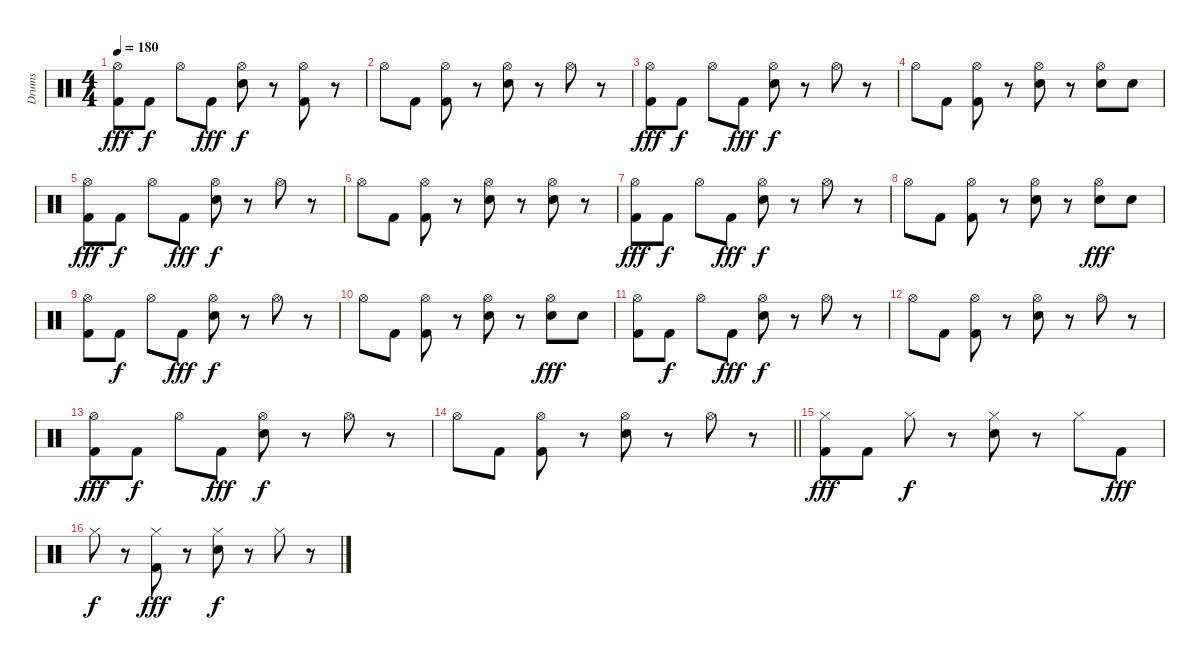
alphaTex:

\track ("Drums" "Drums") {instrument percussion}
\staff {score}
\articulation defaults
\ts (4 4)
\tempo 180
\clef neutral
\ks c
("Hi-Hat (open)" "Kick (hit) 2").8{dy fff} "Kick (hit) 2".8{dy f} "Hi-Hat (open)".8 "Kick (hit) 2".8{dy fff} ("Hi-Hat (open)" "Electric Snare (hit)").8{dy f} r.8 ("Hi-Hat (open)" "Kick (hit) 2").8 r.8 |
"Hi-Hat (open)".8 "Kick (hit) 2".8 ("Hi-Hat (open)" "Kick (hit) 2").8 r.8 ("Hi-Hat (open)" "Electric Snare (hit)").8 r.8 "Hi-Hat (open)".8 r.8 |
("Hi-Hat (open)" "Kick (hit) 2").8{dy fff} "Kick (hit) 2".8{dy f} "Hi-Hat (open)".8 "Kick (hit) 2".8{dy fff} ("Hi-Hat (open)" "Electric Snare (hit)").8{dy f} r.8 "Hi-Hat (open)".8 r.8 |
"Hi-Hat (open)".8 "Kick (hit) 2".8 ("Hi-Hat (open)" "Kick (hit) 2").8 r.8 ("Hi-Hat (open)" "Electric Snare (hit)").8 r.8 ("Hi-Hat (open)" "Electric Snare (hit)").8 "Electric Snare (hit)".8 |
("Hi-Hat (open)" "Kick (hit) 2").8{dy fff} "Kick (hit) 2".8{dy f} "Hi-Hat (open)".8 "Kick (hit) 2".8{dy fff} ("Hi-Hat (open)" "Electric Snare (hit)").8{dy f} r.8 "Hi-Hat (open)".8 r.8 |
"Hi-Hat (open)".8 "Kick (hit) 2".8 ("Hi-Hat (open)" "Kick (hit) 2").8 r.8 ("Hi-Hat (open)" "Electric Snare (hit)").8 r.8 ("Hi-Hat (open)" "Electric Snare (hit)").8 r.8 |
("Hi-Hat (open)" "Kick (hit) 2").8{dy fff} "Kick (hit) 2".8{dy f} "Hi-Hat (open)".8 "Kick (hit) 2".8{dy fff} ("Hi-Hat (open)" "Electric Snare (hit)").8{dy f} r.8 "Hi-Hat (open)".8 r.8 |
"Hi-Hat (open)".8 "Kick (hit) 2".8 ("Hi-Hat (open)" "Kick (hit) 2").8 r.8 ("Hi-Hat (open)" "Electric Snare (hit)").8 r.8 ("Hi-Hat (open)" "Electric Snare (hit)").8{dy fff} "Electric Snare (hit)".8 |
("Hi-Hat (open)" "Kick (hit) 2").8 "Kick (hit) 2".8{dy f} "Hi-Hat (open)".8 "Kick (hit) 2".8{dy fff} ("Hi-Hat (open)" "Electric Snare (hit)").8{dy f} r.8 "Hi-Hat (open)".8 r.8 |
"Hi-Hat (open)".8 "Kick (hit) 2".8 ("Hi-Hat (open)" "Kick (hit) 2").8 r.8 ("Hi-Hat (open)" "Electric Snare (hit)").8 r.8 ("Hi-Hat (open)" "Electric Snare (hit)").8{dy fff} "Electric Snare (hit)".8 |
("Hi-Hat (open)" "Kick (hit) 2").8 "Kick (hit) 2".8{dy f} "Hi-Hat (open)".8 "Kick (hit) 2".8{dy fff} ("Hi-Hat (open)" "Electric Snare (hit)").8{dy f} r.8 "Hi-Hat (open)".8 r.8 |
"Hi-Hat (open)".8 "Kick (hit) 2".8 ("Hi-Hat (open)" "Kick (hit) 2").8 r.8 ("Hi-Hat (open)" "Electric Snare (hit)").8 r.8 "Hi-Hat (open)".8 r.8 |
("Hi-Hat (open)" "Kick (hit) 2").8{dy fff} "Kick (hit) 2".8{dy f} "Hi-Hat (open)".8 "Kick (hit) 2".8{dy fff} ("Hi-Hat (open)" "Electric Snare (hit)").8{dy f} r.8 "Hi-Hat (open)".8 r.8 |
\barLineRight lightlight "Hi-Hat (open)".8 "Kick (hit) 2".8
("Hi-Hat (open)" "Kick (hit) 2").8 r.8 ("Hi-Hat (open)" "Electric Snare (hit)").8 r.8 "Hi-Hat (open)".8 r.8 |
\section ("" "")
("Hi-Hat (closed)" "Kick (hit) 2").8{dy fff} "Kick (hit) 2".8 "Hi-Hat (closed)".8{dy f} r.8 ("Hi-Hat (closed)" "Electric Snare (hit)").8 r.8 "Hi-Hat (closed)".8 "Kick (hit) 2".8{dy fff} |
"Hi-Hat (closed)".8{dy f} r.8 ("Hi-Hat (closed)" "Kick (hit) 2").8{dy fff} r.8 ("Hi-Hat (closed)" "Electric Snare (hit)").8{dy f} r.8 "Hi-Hat (closed)".8 r.8
